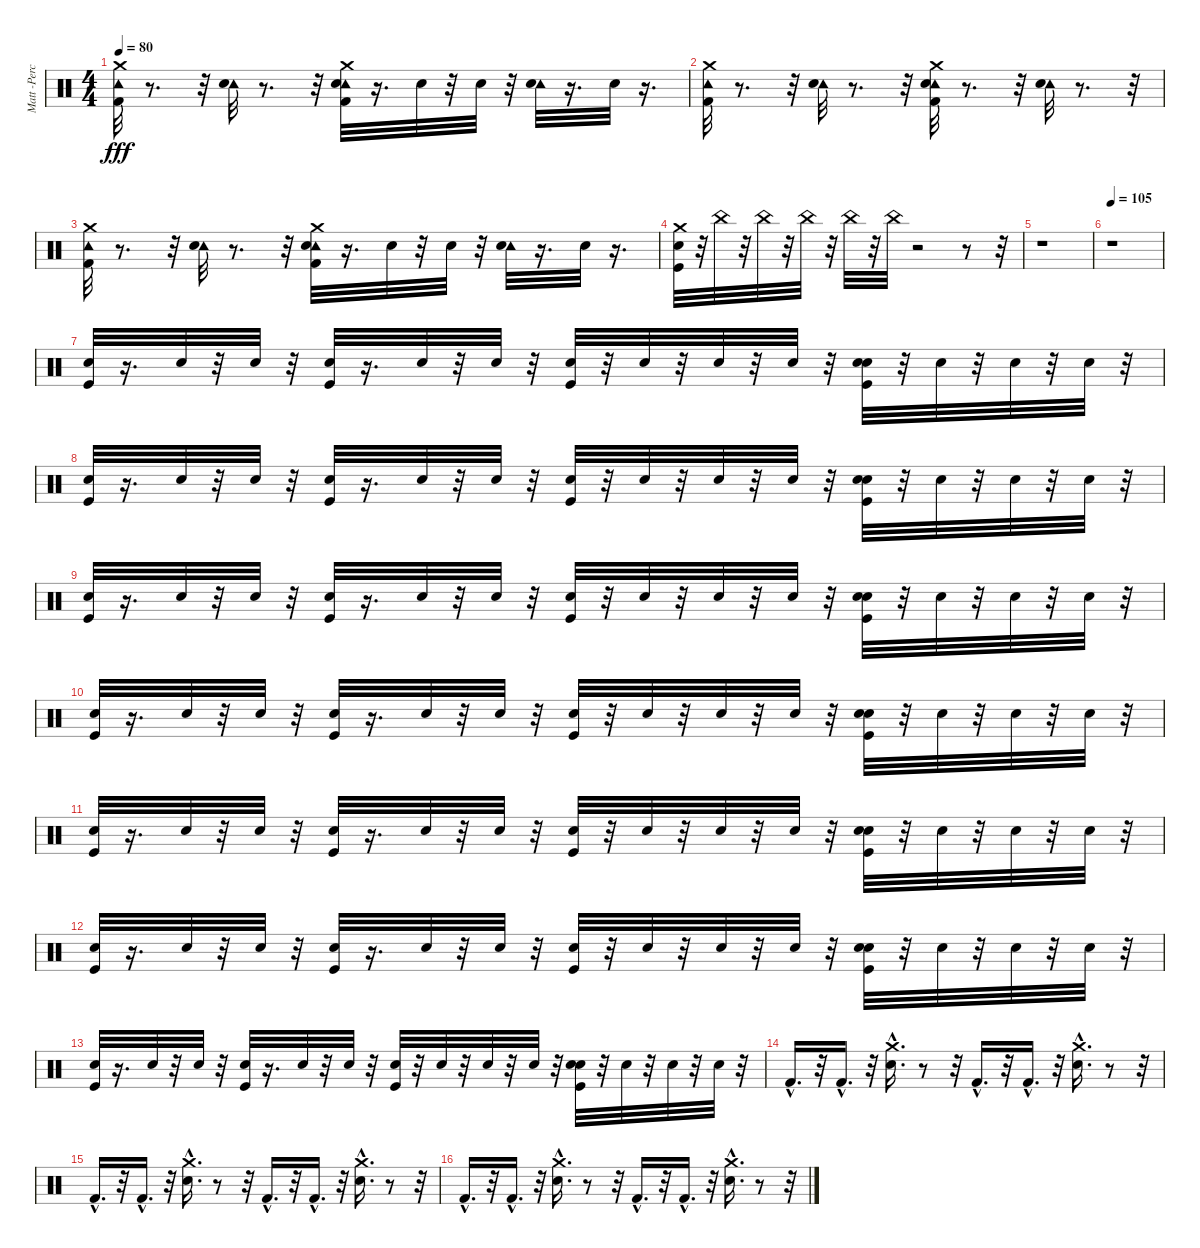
\track ("Matt -Percussion-" "Matt -Perc") {instrument percussion}
\staff {score}
\articulation defaults
\ts (4 4)
\tempo 80
\clef neutral
\ks c
("Crash medium (hit)" "Tambourine (hit)" "Kick (hit) 2").32{dy fff} r.8{d} r.32 ("Tambourine (hit)" "Snare (hit) 2").32 r.8{d} r.32 ("Tambourine (hit)" "Snare (hit) 2" "Kick (hit) 2" "Crash medium (hit)").32 r.16{d} "Snare (hit) 2".32 r.32 "Snare (hit) 2".32 r.32 ("Tambourine (hit)" "Snare (hit) 2").32 r.16{d} "Snare (hit) 2".32 r.16{d} |
("Crash medium (hit)" "Tambourine (hit)" "Kick (hit) 2").32 r.8{d} r.32 ("Tambourine (hit)" "Snare (hit) 2").32 r.8{d} r.32 ("Tambourine (hit)" "Snare (hit) 2" "Crash medium (hit)" "Kick (hit) 2").32 r.8{d} r.32 ("Tambourine (hit)" "Snare (hit) 2").32 r.8{d} r.32 |
("Crash medium (hit)" "Tambourine (hit)" "Kick (hit) 2").32 r.8{d} r.32 ("Tambourine (hit)" "Snare (hit) 2").32 r.8{d} r.32 ("Tambourine (hit)" "Snare (hit) 2" "Kick (hit) 2" "Crash medium (hit)").32 r.16{d} "Snare (hit) 2".32 r.32 "Snare (hit) 2".32 r.32 ("Tambourine (hit)" "Snare (hit) 2").32 r.16{d} "Snare (hit) 2".32 r.16{d} |
("Snare (hit) 2" "Kick (hit)" "Crash medium (hit)").32 r.32 "China (hit)".32 r.32 "China (hit)".32 r.32 "China (hit)".32 r.32 "China (hit)".32 r.32 "China (hit)".32 r.2 r.8 r.32 |
r.1 |
\tempo 105
r.1 |
("Snare (hit) 2" "Kick (hit)").32 r.16{d} "Snare (hit) 2".32 r.32 "Snare (hit) 2".32 r.32 ("Snare (hit) 2" "Kick (hit)").32 r.16{d} "Snare (hit) 2".32 r.32 "Snare (hit) 2".32 r.32 ("Snare (hit) 2" "Kick (hit)").32 r.32 "Snare (hit) 2".32 r.32 "Snare (hit) 2".32 r.32 "Snare (hit) 2".32 r.32 ("Electric Snare (hit)" "Snare (hit) 2" "Kick (hit)").32 r.32 "Snare (hit) 2".32 r.32 "Snare (hit) 2".32 r.32 "Snare (hit) 2".32 r.32 |
("Snare (hit) 2" "Kick (hit)").32 r.16{d} "Snare (hit) 2".32 r.32 "Snare (hit) 2".32 r.32 ("Snare (hit) 2" "Kick (hit)").32 r.16{d} "Snare (hit) 2".32 r.32 "Snare (hit) 2".32 r.32 ("Snare (hit) 2" "Kick (hit)").32 r.32 "Snare (hit) 2".32 r.32 "Snare (hit) 2".32 r.32 "Snare (hit) 2".32 r.32 ("Electric Snare (hit)" "Snare (hit) 2" "Kick (hit)").32 r.32 "Snare (hit) 2".32 r.32 "Snare (hit) 2".32 r.32 "Snare (hit) 2".32 r.32 |
("Snare (hit) 2" "Kick (hit)").32 r.16{d} "Snare (hit) 2".32 r.32 "Snare (hit) 2".32 r.32 ("Snare (hit) 2" "Kick (hit)").32 r.16{d} "Snare (hit) 2".32 r.32 "Snare (hit) 2".32 r.32 ("Snare (hit) 2" "Kick (hit)").32 r.32 "Snare (hit) 2".32 r.32 "Snare (hit) 2".32 r.32 "Snare (hit) 2".32 r.32 ("Electric Snare (hit)" "Snare (hit) 2" "Kick (hit)").32 r.32 "Snare (hit) 2".32 r.32 "Snare (hit) 2".32 r.32 "Snare (hit) 2".32 r.32 |
("Snare (hit) 2" "Kick (hit)").32 r.16{d} "Snare (hit) 2".32 r.32 "Snare (hit) 2".32 r.32 ("Snare (hit) 2" "Kick (hit)").32 r.16{d} "Snare (hit) 2".32 r.32 "Snare (hit) 2".32 r.32 ("Snare (hit) 2" "Kick (hit)").32 r.32 "Snare (hit) 2".32 r.32 "Snare (hit) 2".32 r.32 "Snare (hit) 2".32 r.32 ("Electric Snare (hit)" "Snare (hit) 2" "Kick (hit)").32 r.32 "Snare (hit) 2".32 r.32 "Snare (hit) 2".32 r.32 "Snare (hit) 2".32 r.32 |
("Snare (hit) 2" "Kick (hit)").32 r.16{d} "Snare (hit) 2".32 r.32 "Snare (hit) 2".32 r.32 ("Snare (hit) 2" "Kick (hit)").32 r.16{d} "Snare (hit) 2".32 r.32 "Snare (hit) 2".32 r.32 ("Snare (hit) 2" "Kick (hit)").32 r.32 "Snare (hit) 2".32 r.32 "Snare (hit) 2".32 r.32 "Snare (hit) 2".32 r.32 ("Electric Snare (hit)" "Snare (hit) 2" "Kick (hit)").32 r.32 "Snare (hit) 2".32 r.32 "Snare (hit) 2".32 r.32 "Snare (hit) 2".32 r.32 |
("Snare (hit) 2" "Kick (hit)").32 r.16{d} "Snare (hit) 2".32 r.32 "Snare (hit) 2".32 r.32 ("Snare (hit) 2" "Kick (hit)").32 r.16{d} "Snare (hit) 2".32 r.32 "Snare (hit) 2".32 r.32 ("Snare (hit) 2" "Kick (hit)").32 r.32 "Snare (hit) 2".32 r.32 "Snare (hit) 2".32 r.32 "Snare (hit) 2".32 r.32 ("Electric Snare (hit)" "Snare (hit) 2" "Kick (hit)").32 r.32 "Snare (hit) 2".32 r.32 "Snare (hit) 2".32 r.32 "Snare (hit) 2".32 r.32 |
("Snare (hit) 2" "Kick (hit)").32 r.16{d} "Snare (hit) 2".32 r.32 "Snare (hit) 2".32 r.32 ("Snare (hit) 2" "Kick (hit)").32 r.16{d} "Snare (hit) 2".32 r.32 "Snare (hit) 2".32 r.32 ("Snare (hit) 2" "Kick (hit)").32 r.32 "Snare (hit) 2".32 r.32 "Snare (hit) 2".32 r.32 "Snare (hit) 2".32 r.32 ("Electric Snare (hit)" "Snare (hit) 2" "Kick (hit)").32 r.32 "Snare (hit) 2".32 r.32 "Snare (hit) 2".32 r.32 "Snare (hit) 2".32 r.32 |
"Kick (hit) 2"{hac}.16{d} r.32 "Kick (hit) 2"{hac}.16{d} r.32 ("Snare (hit) 2"{hac} "Crash medium (hit)"{hac}).16{d} r.8 r.32 "Kick (hit) 2"{hac}.16{d} r.32 "Kick (hit) 2"{hac}.16{d} r.32 ("Snare (hit) 2"{hac} "Crash medium (hit)"{hac}).16{d} r.8 r.32 |
"Kick (hit) 2"{hac}.16{d} r.32 "Kick (hit) 2"{hac}.16{d} r.32 ("Snare (hit) 2"{hac} "Crash medium (hit)"{hac}).16{d} r.8 r.32 "Kick (hit) 2"{hac}.16{d} r.32 "Kick (hit) 2"{hac}.16{d} r.32 ("Snare (hit) 2"{hac} "Crash medium (hit)"{hac}).16{d} r.8 r.32 |
"Kick (hit) 2"{hac}.16{d} r.32 "Kick (hit) 2"{hac}.16{d} r.32 ("Snare (hit) 2"{hac} "Crash medium (hit)"{hac}).16{d} r.8 r.32 "Kick (hit) 2"{hac}.16{d} r.32 "Kick (hit) 2"{hac}.16{d} r.32 ("Snare (hit) 2"{hac} "Crash medium (hit)"{hac}).16{d} r.8 r.32
